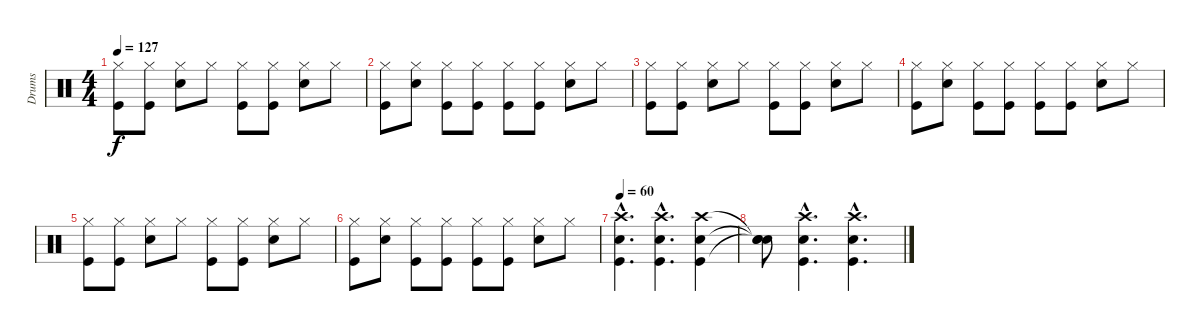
\track ("Drums" "Drums") {instrument percussion}
\staff {score}
\articulation defaults
\ts (4 4)
\tempo 127
\clef neutral
\ks c
("Hi-Hat (closed)" "Kick (hit)").8{dy f} ("Hi-Hat (closed)" "Kick (hit)").8 ("Hi-Hat (closed)" "Electric Snare (hit)").8 "Hi-Hat (closed)".8 ("Hi-Hat (closed)" "Kick (hit)").8 ("Hi-Hat (closed)" "Kick (hit)").8 ("Hi-Hat (closed)" "Electric Snare (hit)").8 "Hi-Hat (closed)".8 |
("Hi-Hat (closed)" "Kick (hit)").8 ("Hi-Hat (closed)" "Electric Snare (hit)").8 ("Hi-Hat (closed)" "Kick (hit)").8 ("Hi-Hat (closed)" "Kick (hit)").8 ("Hi-Hat (closed)" "Kick (hit)").8 ("Hi-Hat (closed)" "Kick (hit)").8 ("Hi-Hat (closed)" "Electric Snare (hit)").8 "Hi-Hat (closed)".8 |
("Hi-Hat (closed)" "Kick (hit)").8 ("Hi-Hat (closed)" "Kick (hit)").8 ("Hi-Hat (closed)" "Electric Snare (hit)").8 "Hi-Hat (closed)".8 ("Hi-Hat (closed)" "Kick (hit)").8 ("Hi-Hat (closed)" "Kick (hit)").8 ("Hi-Hat (closed)" "Electric Snare (hit)").8 "Hi-Hat (closed)".8 |
("Hi-Hat (closed)" "Kick (hit)").8 ("Hi-Hat (closed)" "Electric Snare (hit)").8 ("Hi-Hat (closed)" "Kick (hit)").8 ("Hi-Hat (closed)" "Kick (hit)").8 ("Hi-Hat (closed)" "Kick (hit)").8 ("Hi-Hat (closed)" "Kick (hit)").8 ("Hi-Hat (closed)" "Electric Snare (hit)").8 "Hi-Hat (closed)".8 |
("Hi-Hat (closed)" "Kick (hit)").8 ("Hi-Hat (closed)" "Kick (hit)").8 ("Hi-Hat (closed)" "Electric Snare (hit)").8 "Hi-Hat (closed)".8 ("Hi-Hat (closed)" "Kick (hit)").8 ("Hi-Hat (closed)" "Kick (hit)").8 ("Hi-Hat (closed)" "Electric Snare (hit)").8 "Hi-Hat (closed)".8 |
("Hi-Hat (closed)" "Kick (hit)").8 ("Hi-Hat (closed)" "Electric Snare (hit)").8 ("Hi-Hat (closed)" "Kick (hit)").8 ("Hi-Hat (closed)" "Kick (hit)").8 ("Hi-Hat (closed)" "Kick (hit)").8 ("Hi-Hat (closed)" "Kick (hit)").8 ("Hi-Hat (closed)" "Electric Snare (hit)").8 "Hi-Hat (closed)".8 |
\tempo 60
("Crash high (hit)"{hac} "Electric Snare (hit)"{hac} "Kick (hit)"{hac}).4{d} ("Crash high (hit)"{hac} "Electric Snare (hit)"{hac} "Kick (hit)"{hac}).4{d} ("Crash high (hit)" "Electric Snare (hit)" "Kick (hit)").4 |
("Snare (hit)"{t} "Snare (hit)"{t} "Snare (hit)"{t}).8 ("Crash high (hit)"{hac} "Electric Snare (hit)"{hac} "Kick (hit)"{hac}).4{d} ("Crash high (hit)"{hac} "Electric Snare (hit)"{hac} "Kick (hit)"{hac}).4{d}
